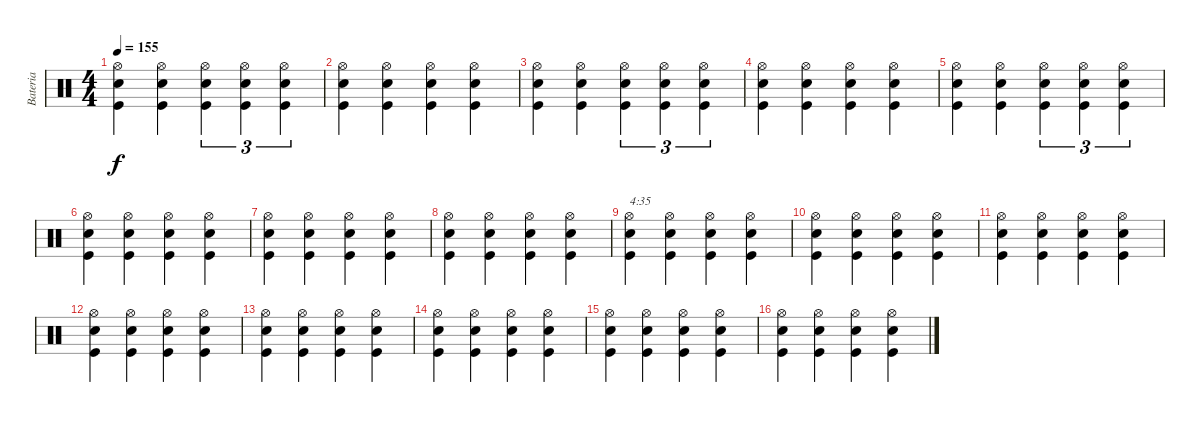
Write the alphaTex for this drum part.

\track ("Bateria" "Bateria") {instrument percussion}
\staff {score}
\articulation defaults
\ts (4 4)
\tempo 155
\clef neutral
\ks c
("Kick (hit)" "Snare (hit) 2" "Hi-Hat (open)").4{dy f} ("Kick (hit)" "Snare (hit) 2" "Hi-Hat (open)").4 ("Kick (hit)" "Snare (hit) 2" "Hi-Hat (open)").4{tu (3 2)} ("Kick (hit)" "Snare (hit) 2" "Hi-Hat (open)").4{tu (3 2)} ("Kick (hit)" "Snare (hit) 2" "Hi-Hat (open)").4{tu (3 2)} |
("Kick (hit)" "Snare (hit) 2" "Hi-Hat (open)").4 ("Kick (hit)" "Snare (hit) 2" "Hi-Hat (open)").4 ("Kick (hit)" "Snare (hit) 2" "Hi-Hat (open)").4 ("Kick (hit)" "Snare (hit) 2" "Hi-Hat (open)").4 |
("Kick (hit)" "Snare (hit) 2" "Hi-Hat (open)").4 ("Kick (hit)" "Snare (hit) 2" "Hi-Hat (open)").4 ("Kick (hit)" "Snare (hit) 2" "Hi-Hat (open)").4{tu (3 2)} ("Kick (hit)" "Snare (hit) 2" "Hi-Hat (open)").4{tu (3 2)} ("Kick (hit)" "Snare (hit) 2" "Hi-Hat (open)").4{tu (3 2)} |
("Kick (hit)" "Snare (hit) 2" "Hi-Hat (open)").4 ("Kick (hit)" "Snare (hit) 2" "Hi-Hat (open)").4 ("Kick (hit)" "Snare (hit) 2" "Hi-Hat (open)").4 ("Kick (hit)" "Snare (hit) 2" "Hi-Hat (open)").4 |
("Kick (hit)" "Snare (hit) 2" "Hi-Hat (open)").4 ("Kick (hit)" "Snare (hit) 2" "Hi-Hat (open)").4 ("Kick (hit)" "Snare (hit) 2" "Hi-Hat (open)").4{tu (3 2)} ("Kick (hit)" "Snare (hit) 2" "Hi-Hat (open)").4{tu (3 2)} ("Kick (hit)" "Snare (hit) 2" "Hi-Hat (open)").4{tu (3 2)} |
("Kick (hit)" "Snare (hit) 2" "Hi-Hat (open)").4 ("Kick (hit)" "Snare (hit) 2" "Hi-Hat (open)").4 ("Kick (hit)" "Snare (hit) 2" "Hi-Hat (open)").4 ("Kick (hit)" "Snare (hit) 2" "Hi-Hat (open)").4 |
("Kick (hit)" "Snare (hit) 2" "Hi-Hat (open)").4 ("Kick (hit)" "Snare (hit) 2" "Hi-Hat (open)").4 ("Kick (hit)" "Snare (hit) 2" "Hi-Hat (open)").4 ("Kick (hit)" "Snare (hit) 2" "Hi-Hat (open)").4 |
("Kick (hit)" "Snare (hit) 2" "Hi-Hat (open)").4 ("Kick (hit)" "Snare (hit) 2" "Hi-Hat (open)").4 ("Kick (hit)" "Snare (hit) 2" "Hi-Hat (open)").4 ("Kick (hit)" "Snare (hit) 2" "Hi-Hat (open)").4 |
("Kick (hit)" "Snare (hit) 2" "Hi-Hat (open)").4{txt "4:35"} ("Kick (hit)" "Snare (hit) 2" "Hi-Hat (open)").4 ("Kick (hit)" "Snare (hit) 2" "Hi-Hat (open)").4 ("Kick (hit)" "Snare (hit) 2" "Hi-Hat (open)").4 |
("Kick (hit)" "Snare (hit) 2" "Hi-Hat (open)").4 ("Kick (hit)" "Snare (hit) 2" "Hi-Hat (open)").4 ("Kick (hit)" "Snare (hit) 2" "Hi-Hat (open)").4 ("Kick (hit)" "Snare (hit) 2" "Hi-Hat (open)").4 |
("Kick (hit)" "Snare (hit) 2" "Hi-Hat (open)").4 ("Kick (hit)" "Snare (hit) 2" "Hi-Hat (open)").4 ("Kick (hit)" "Snare (hit) 2" "Hi-Hat (open)").4 ("Kick (hit)" "Snare (hit) 2" "Hi-Hat (open)").4 |
("Kick (hit)" "Snare (hit) 2" "Hi-Hat (open)").4 ("Kick (hit)" "Snare (hit) 2" "Hi-Hat (open)").4 ("Kick (hit)" "Snare (hit) 2" "Hi-Hat (open)").4 ("Kick (hit)" "Snare (hit) 2" "Hi-Hat (open)").4 |
("Kick (hit)" "Snare (hit) 2" "Hi-Hat (open)").4 ("Kick (hit)" "Snare (hit) 2" "Hi-Hat (open)").4 ("Kick (hit)" "Snare (hit) 2" "Hi-Hat (open)").4 ("Kick (hit)" "Snare (hit) 2" "Hi-Hat (open)").4 |
("Kick (hit)" "Snare (hit) 2" "Hi-Hat (open)").4 ("Kick (hit)" "Snare (hit) 2" "Hi-Hat (open)").4 ("Kick (hit)" "Snare (hit) 2" "Hi-Hat (open)").4 ("Kick (hit)" "Snare (hit) 2" "Hi-Hat (open)").4 |
("Kick (hit)" "Snare (hit) 2" "Hi-Hat (open)").4 ("Kick (hit)" "Snare (hit) 2" "Hi-Hat (open)").4 ("Kick (hit)" "Snare (hit) 2" "Hi-Hat (open)").4 ("Kick (hit)" "Snare (hit) 2" "Hi-Hat (open)").4 |
("Kick (hit)" "Snare (hit) 2" "Hi-Hat (open)").4 ("Kick (hit)" "Snare (hit) 2" "Hi-Hat (open)").4 ("Kick (hit)" "Snare (hit) 2" "Hi-Hat (open)").4 ("Kick (hit)" "Snare (hit) 2" "Hi-Hat (open)").4
